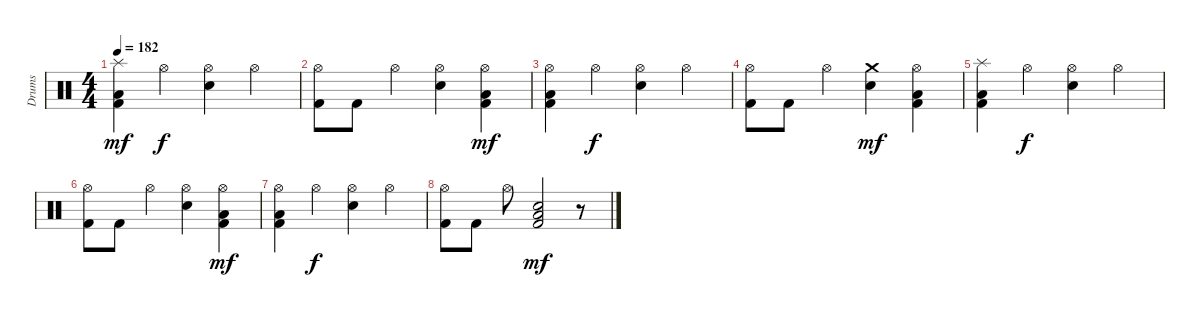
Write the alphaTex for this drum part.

\track ("Drums" "Drums") {instrument percussion}
\staff {score}
\articulation defaults
\ts (4 4)
\tempo 182
\clef neutral
\ks c
("Splash (hit)" "Low Floor Tom (hit)" "Kick (hit) 2").4{dy mf} "Hi-Hat (open)".4{dy f} ("Hi-Hat (open)" "Snare (hit) 2").4 "Hi-Hat (open)".4 |
("Hi-Hat (open)" "Kick (hit) 2").8 "Kick (hit) 2".8 "Hi-Hat (open)".4 ("Hi-Hat (open)" "Snare (hit) 2").4 ("Hi-Hat (open)" "Low Floor Tom (hit)" "Kick (hit) 2").4{dy mf} |
("Hi-Hat (open)" "Low Floor Tom (hit)" "Kick (hit) 2").4 "Hi-Hat (open)".4{dy f} ("Hi-Hat (open)" "Snare (hit) 2").4 "Hi-Hat (open)".4 |
("Hi-Hat (open)" "Kick (hit) 2").8 "Kick (hit) 2".8 "Hi-Hat (open)".4 ("Crash medium (hit)" "Snare (hit) 2").4{dy mf} ("Hi-Hat (open)" "Low Floor Tom (hit)" "Kick (hit) 2").4 |
("Splash (hit)" "Low Floor Tom (hit)" "Kick (hit) 2").4 "Hi-Hat (open)".4{dy f} ("Hi-Hat (open)" "Snare (hit) 2").4 "Hi-Hat (open)".4 |
("Hi-Hat (open)" "Kick (hit) 2").8 "Kick (hit) 2".8 "Hi-Hat (open)".4 ("Hi-Hat (open)" "Snare (hit) 2").4 ("Hi-Hat (open)" "Low Floor Tom (hit)" "Kick (hit) 2").4{dy mf} |
("Hi-Hat (open)" "Low Floor Tom (hit)" "Kick (hit) 2").4 "Hi-Hat (open)".4{dy f} ("Hi-Hat (open)" "Snare (hit) 2").4 "Hi-Hat (open)".4 |
("Hi-Hat (open)" "Kick (hit) 2").8 "Kick (hit) 2".8 "Hi-Hat (open)".8 ("Low Tom (hit)" "Snare (hit) 2" "Kick (hit) 2").2{dy mf} r.8
